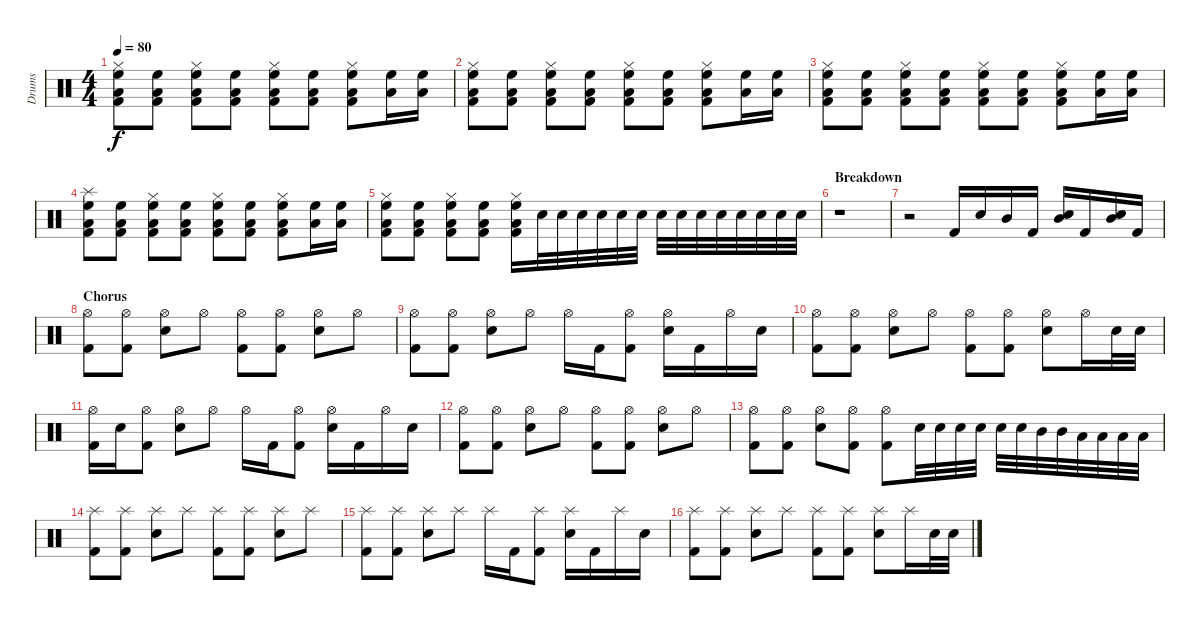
\track ("Drums" "Drums") {instrument percussion}
\staff {score}
\articulation defaults
\ts (4 4)
\tempo 80
\clef neutral
\ks c
("Kick (hit) 2" "Low Tom (hit)" "High Floor Tom (hit)" "Hi-Hat (closed)").8{dy f} ("Kick (hit) 2" "Low Tom (hit)" "High Floor Tom (hit)").8 ("Kick (hit) 2" "Low Tom (hit)" "High Floor Tom (hit)" "Hi-Hat (closed)").8 ("Kick (hit) 2" "Low Tom (hit)" "High Floor Tom (hit)").8 ("Kick (hit) 2" "Low Tom (hit)" "High Floor Tom (hit)" "Hi-Hat (closed)").8 ("Kick (hit) 2" "Low Tom (hit)" "High Floor Tom (hit)").8 ("Kick (hit) 2" "Low Tom (hit)" "High Floor Tom (hit)" "Hi-Hat (closed)").8 ("Low Tom (hit)" "High Floor Tom (hit)").16 ("Low Tom (hit)" "High Floor Tom (hit)").16 |
("Kick (hit) 2" "Low Tom (hit)" "High Floor Tom (hit)" "Hi-Hat (closed)").8 ("Kick (hit) 2" "Low Tom (hit)" "High Floor Tom (hit)").8 ("Kick (hit) 2" "Low Tom (hit)" "High Floor Tom (hit)" "Hi-Hat (closed)").8 ("Kick (hit) 2" "Low Tom (hit)" "High Floor Tom (hit)").8 ("Kick (hit) 2" "Low Tom (hit)" "High Floor Tom (hit)" "Hi-Hat (closed)").8 ("Kick (hit) 2" "Low Tom (hit)" "High Floor Tom (hit)").8 ("Kick (hit) 2" "Low Tom (hit)" "High Floor Tom (hit)" "Hi-Hat (closed)").8 ("Low Tom (hit)" "High Floor Tom (hit)").16 ("Low Tom (hit)" "High Floor Tom (hit)").16 |
("Kick (hit) 2" "Low Tom (hit)" "High Floor Tom (hit)" "Hi-Hat (closed)").8 ("Kick (hit) 2" "Low Tom (hit)" "High Floor Tom (hit)").8 ("Kick (hit) 2" "Low Tom (hit)" "High Floor Tom (hit)" "Hi-Hat (closed)").8 ("Kick (hit) 2" "Low Tom (hit)" "High Floor Tom (hit)").8 ("Kick (hit) 2" "Low Tom (hit)" "High Floor Tom (hit)" "Hi-Hat (closed)").8 ("Kick (hit) 2" "Low Tom (hit)" "High Floor Tom (hit)").8 ("Kick (hit) 2" "Low Tom (hit)" "High Floor Tom (hit)" "Hi-Hat (closed)").8 ("Low Tom (hit)" "High Floor Tom (hit)").16 ("Low Tom (hit)" "High Floor Tom (hit)").16 |
("Kick (hit) 2" "Low Tom (hit)" "High Floor Tom (hit)" "Splash (hit)").8 ("Kick (hit) 2" "Low Tom (hit)" "High Floor Tom (hit)").8 ("Kick (hit) 2" "Low Tom (hit)" "High Floor Tom (hit)" "Hi-Hat (closed)").8 ("Kick (hit) 2" "Low Tom (hit)" "High Floor Tom (hit)").8 ("Kick (hit) 2" "Low Tom (hit)" "High Floor Tom (hit)" "Hi-Hat (closed)").8 ("Kick (hit) 2" "Low Tom (hit)" "High Floor Tom (hit)").8 ("Kick (hit) 2" "Low Tom (hit)" "High Floor Tom (hit)" "Hi-Hat (closed)").8 ("Low Tom (hit)" "High Floor Tom (hit)").16 ("Low Tom (hit)" "High Floor Tom (hit)").16 |
("Kick (hit) 2" "Low Tom (hit)" "High Floor Tom (hit)" "Hi-Hat (closed)").8 ("Kick (hit) 2" "Low Tom (hit)" "High Floor Tom (hit)").8 ("Kick (hit) 2" "Low Tom (hit)" "High Floor Tom (hit)" "Hi-Hat (closed)").8 ("Kick (hit) 2" "Low Tom (hit)" "High Floor Tom (hit)").8 ("Kick (hit) 2" "Low Tom (hit)" "High Floor Tom (hit)" "Hi-Hat (closed)").16 "Snare (hit) 2".32 "Snare (hit) 2".32 "Snare (hit) 2".32 "Snare (hit) 2".32 "Snare (hit) 2".32 "Snare (hit) 2".32 "Snare (hit) 2".32 "Snare (hit) 2".32 "Snare (hit) 2".32 "Snare (hit) 2".32 "Snare (hit) 2".32 "Snare (hit) 2".32 "Snare (hit) 2".32 "Snare (hit) 2".32 |
\section ("" "Breakdown")
r.1 |
r.2 "Kick (hit) 2".16 "Snare (hit) 2".16 "Mid Tom (hit)".16 "Kick (hit) 2".16 ("Mid Tom (hit)" "Snare (hit) 2").16 "Kick (hit) 2".16 ("Mid Tom (hit)" "Snare (hit) 2").16 "Kick (hit) 2".16 |
\section ("" "Chorus")
("Hi-Hat (open)" "Kick (hit) 2").8 ("Hi-Hat (open)" "Kick (hit) 2").8 ("Hi-Hat (open)" "Snare (hit) 2").8 "Hi-Hat (open)".8 ("Hi-Hat (open)" "Kick (hit) 2").8 ("Hi-Hat (open)" "Kick (hit) 2").8 ("Hi-Hat (open)" "Snare (hit) 2").8 "Hi-Hat (open)".8 |
("Hi-Hat (open)" "Kick (hit) 2").8 ("Hi-Hat (open)" "Kick (hit) 2").8 ("Hi-Hat (open)" "Snare (hit) 2").8 "Hi-Hat (open)".8 "Hi-Hat (open)".16 "Kick (hit) 2".16 ("Hi-Hat (open)" "Kick (hit) 2").8 ("Hi-Hat (open)" "Snare (hit) 2").16 "Kick (hit) 2".16 "Hi-Hat (open)".16 "Snare (hit) 2".16 |
("Hi-Hat (open)" "Kick (hit) 2").8 ("Hi-Hat (open)" "Kick (hit) 2").8 ("Hi-Hat (open)" "Snare (hit) 2").8 "Hi-Hat (open)".8 ("Hi-Hat (open)" "Kick (hit) 2").8 ("Hi-Hat (open)" "Kick (hit) 2").8 ("Hi-Hat (open)" "Snare (hit) 2").8 "Hi-Hat (open)".16 "Snare (hit) 2".32 "Snare (hit) 2".32 |
("Hi-Hat (open)" "Kick (hit) 2").16 "Snare (hit) 2".16 ("Hi-Hat (open)" "Kick (hit) 2").8 ("Hi-Hat (open)" "Snare (hit) 2").8 "Hi-Hat (open)".8 "Hi-Hat (open)".16 "Kick (hit) 2".16 ("Hi-Hat (open)" "Kick (hit) 2").8 ("Hi-Hat (open)" "Snare (hit) 2").16 "Kick (hit) 2".16 "Hi-Hat (open)".16 "Snare (hit) 2".16 |
("Hi-Hat (open)" "Kick (hit) 2").8 ("Hi-Hat (open)" "Kick (hit) 2").8 ("Hi-Hat (open)" "Snare (hit) 2").8 "Hi-Hat (open)".8 ("Hi-Hat (open)" "Kick (hit) 2").8 ("Hi-Hat (open)" "Kick (hit) 2").8 ("Hi-Hat (open)" "Snare (hit) 2").8 "Hi-Hat (open)".8 |
("Hi-Hat (open)" "Kick (hit) 2").8 ("Hi-Hat (open)" "Kick (hit) 2").8 ("Hi-Hat (open)" "Snare (hit) 2").8 ("Hi-Hat (open)" "Kick (hit) 2").8 ("Hi-Hat (open)" "Kick (hit) 2").8 "Snare (hit) 2".32 "Snare (hit) 2".32 "Snare (hit) 2".32 "Snare (hit) 2".32 "Snare (hit) 2".32 "Snare (hit) 2".32 "Mid Tom (hit)".32 "Mid Tom (hit)".32 "Low Tom (hit)".32 "Low Tom (hit)".32 "Low Tom (hit)".32 "Low Tom (hit)".32 |
("Splash (hit)" "Kick (hit) 2").8 ("Splash (hit)" "Kick (hit) 2").8 ("Splash (hit)" "Snare (hit) 2").8 "Splash (hit)".8 ("Splash (hit)" "Kick (hit) 2").8 ("Splash (hit)" "Kick (hit) 2").8 ("Splash (hit)" "Snare (hit) 2").8 "Splash (hit)".8 |
("Splash (hit)" "Kick (hit) 2").8 ("Splash (hit)" "Kick (hit) 2").8 ("Splash (hit)" "Snare (hit) 2").8 "Splash (hit)".8 "Splash (hit)".16 "Kick (hit) 2".16 ("Splash (hit)" "Kick (hit) 2").8 ("Splash (hit)" "Snare (hit) 2").16 "Kick (hit) 2".16 "Splash (hit)".16 "Snare (hit) 2".16 |
("Splash (hit)" "Kick (hit) 2").8 ("Splash (hit)" "Kick (hit) 2").8 ("Splash (hit)" "Snare (hit) 2").8 "Splash (hit)".8 ("Splash (hit)" "Kick (hit) 2").8 ("Splash (hit)" "Kick (hit) 2").8 ("Splash (hit)" "Snare (hit) 2").8 "Splash (hit)".16 "Snare (hit) 2".32 "Snare (hit) 2".32
